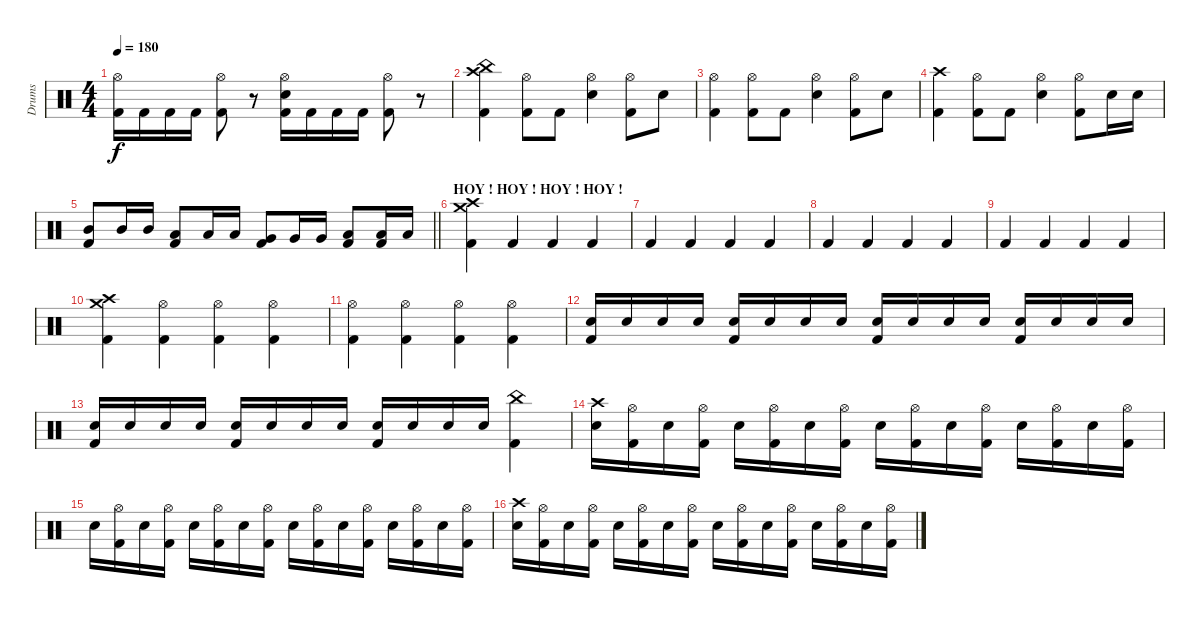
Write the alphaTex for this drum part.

\track ("Drums" "Drums") {instrument percussion}
\staff {score}
\articulation defaults
\ts (4 4)
\tempo 180
\clef neutral
\ks c
("Hi-Hat (open)" "Kick (hit) 2").16{dy f} "Kick (hit) 2".16 "Kick (hit) 2".16 "Kick (hit) 2".16 ("Hi-Hat (open)" "Kick (hit) 2").8 r.8 ("Hi-Hat (open)" "Electric Snare (hit)" "Kick (hit) 2").16 "Kick (hit) 2".16 "Kick (hit) 2".16 "Kick (hit) 2".16 ("Hi-Hat (open)" "Kick (hit) 2").8 r.8 |
("Crash high (hit)" "China (hit)" "Kick (hit) 2").4 ("Hi-Hat (open)" "Kick (hit) 2").8 "Kick (hit) 2".8 ("Hi-Hat (open)" "Electric Snare (hit)").4 ("Hi-Hat (open)" "Kick (hit) 2").8 "Electric Snare (hit)".8 |
("Hi-Hat (open)" "Kick (hit) 2").4 ("Hi-Hat (open)" "Kick (hit) 2").8 "Kick (hit) 2".8 ("Hi-Hat (open)" "Electric Snare (hit)").4 ("Hi-Hat (open)" "Kick (hit) 2").8 "Electric Snare (hit)".8 |
("Crash high (hit)" "Kick (hit) 2").4 ("Hi-Hat (open)" "Kick (hit) 2").8 "Kick (hit) 2".8 ("Hi-Hat (open)" "Electric Snare (hit)").4 ("Hi-Hat (open)" "Kick (hit) 2").8 "Electric Snare (hit)".16 "Electric Snare (hit)".16 |
\barLineRight lightlight
("Mid Tom (hit)" "Kick (hit) 2").8 "Mid Tom (hit)".16 "Mid Tom (hit)".16 ("Low Tom (hit)" "Kick (hit) 2").8 "Low Tom (hit)".16 "Low Tom (hit)".16 ("Very Low Tom (hit)" "Kick (hit) 2").8 "Very Low Tom (hit)".16 "Very Low Tom (hit)".16 ("Low Floor Tom (hit)" "Kick (hit) 2").8 ("Low Floor Tom (hit)" "Kick (hit) 2").16 "Low Floor Tom (hit)".16 |
\section ("" "HOY ! HOY ! HOY ! HOY !")
("Crash high (hit)" "Crash medium (hit)" "Kick (hit) 2").4 "Kick (hit) 2".4 "Kick (hit) 2".4 "Kick (hit) 2".4 |
"Kick (hit) 2".4 "Kick (hit) 2".4 "Kick (hit) 2".4 "Kick (hit) 2".4 |
"Kick (hit) 2".4 "Kick (hit) 2".4 "Kick (hit) 2".4 "Kick (hit) 2".4 |
"Kick (hit) 2".4 "Kick (hit) 2".4 "Kick (hit) 2".4 "Kick (hit) 2".4 |
("Crash high (hit)" "Crash medium (hit)" "Kick (hit) 2").4 ("Hi-Hat (open)" "Kick (hit) 2").4 ("Hi-Hat (open)" "Kick (hit) 2").4 ("Hi-Hat (open)" "Kick (hit) 2").4 |
("Hi-Hat (open)" "Kick (hit) 2").4 ("Hi-Hat (open)" "Kick (hit) 2").4 ("Hi-Hat (open)" "Kick (hit) 2").4 ("Hi-Hat (open)" "Kick (hit) 2").4 |
("Electric Snare (hit)" "Kick (hit) 2").16 "Electric Snare (hit)".16 "Electric Snare (hit)".16 "Electric Snare (hit)".16 ("Electric Snare (hit)" "Kick (hit) 2").16 "Electric Snare (hit)".16 "Electric Snare (hit)".16 "Electric Snare (hit)".16 ("Electric Snare (hit)" "Kick (hit) 2").16 "Electric Snare (hit)".16 "Electric Snare (hit)".16 "Electric Snare (hit)".16 ("Electric Snare (hit)" "Kick (hit) 2").16 "Electric Snare (hit)".16 "Electric Snare (hit)".16 "Electric Snare (hit)".16 |
("Electric Snare (hit)" "Kick (hit) 2").16 "Electric Snare (hit)".16 "Electric Snare (hit)".16 "Electric Snare (hit)".16 ("Electric Snare (hit)" "Kick (hit) 2").16 "Electric Snare (hit)".16 "Electric Snare (hit)".16 "Electric Snare (hit)".16 ("Electric Snare (hit)" "Kick (hit) 2").16 "Electric Snare (hit)".16 "Electric Snare (hit)".16 "Electric Snare (hit)".16 ("China (hit)" "Kick (hit) 2").4 |
("Crash high (hit)" "Electric Snare (hit)").16 ("Hi-Hat (open)" "Kick (hit) 2").16 "Electric Snare (hit)".16 ("Hi-Hat (open)" "Kick (hit) 2").16 "Electric Snare (hit)".16 ("Hi-Hat (open)" "Kick (hit) 2").16 "Electric Snare (hit)".16 ("Hi-Hat (open)" "Kick (hit) 2").16 "Electric Snare (hit)".16 ("Hi-Hat (open)" "Kick (hit) 2").16 "Electric Snare (hit)".16 ("Hi-Hat (open)" "Kick (hit) 2").16 "Electric Snare (hit)".16 ("Hi-Hat (open)" "Kick (hit) 2").16 "Electric Snare (hit)".16 ("Hi-Hat (open)" "Kick (hit) 2").16 |
"Electric Snare (hit)".16 ("Hi-Hat (open)" "Kick (hit) 2").16 "Electric Snare (hit)".16 ("Hi-Hat (open)" "Kick (hit) 2").16 "Electric Snare (hit)".16 ("Hi-Hat (open)" "Kick (hit) 2").16 "Electric Snare (hit)".16 ("Hi-Hat (open)" "Kick (hit) 2").16 "Electric Snare (hit)".16 ("Hi-Hat (open)" "Kick (hit) 2").16 "Electric Snare (hit)".16 ("Hi-Hat (open)" "Kick (hit) 2").16 "Electric Snare (hit)".16 ("Hi-Hat (open)" "Kick (hit) 2").16 "Electric Snare (hit)".16 ("Hi-Hat (open)" "Kick (hit) 2").16 |
("Crash high (hit)" "Electric Snare (hit)").16 ("Hi-Hat (open)" "Kick (hit) 2").16 "Electric Snare (hit)".16 ("Hi-Hat (open)" "Kick (hit) 2").16 "Electric Snare (hit)".16 ("Hi-Hat (open)" "Kick (hit) 2").16 "Electric Snare (hit)".16 ("Hi-Hat (open)" "Kick (hit) 2").16 "Electric Snare (hit)".16 ("Hi-Hat (open)" "Kick (hit) 2").16 "Electric Snare (hit)".16 ("Hi-Hat (open)" "Kick (hit) 2").16 "Electric Snare (hit)".16 ("Hi-Hat (open)" "Kick (hit) 2").16 "Electric Snare (hit)".16 ("Hi-Hat (open)" "Kick (hit) 2").16
